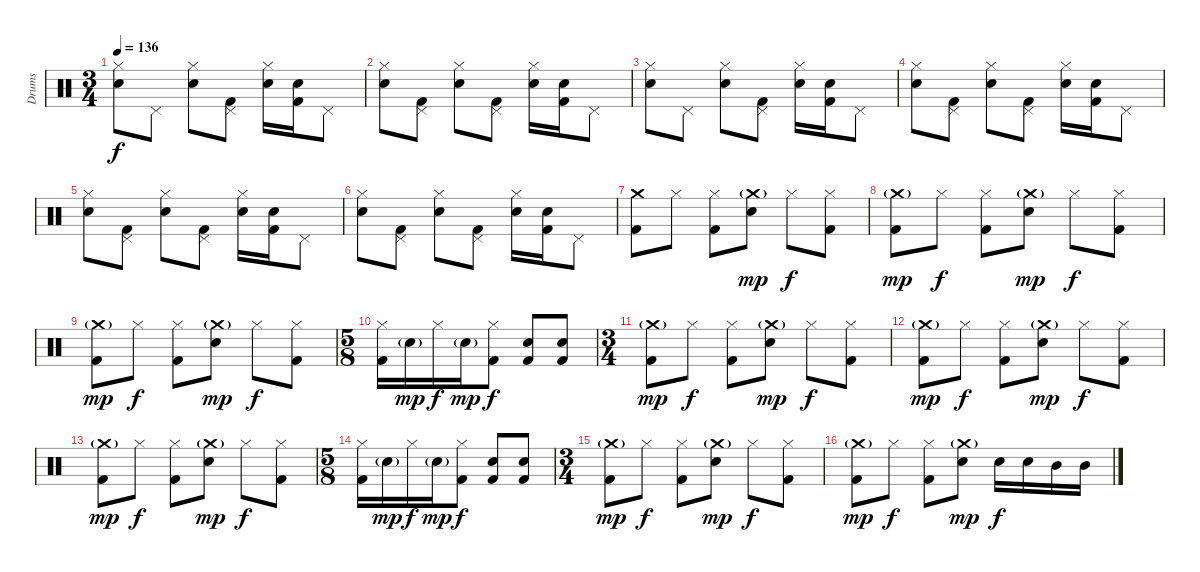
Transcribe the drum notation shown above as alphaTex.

\track ("Drums" "Drums") {instrument percussion}
\staff {score}
\articulation defaults
\ts (3 4)
\tempo 136
\clef neutral
\ks c
("Hi-Hat (closed)" "Electric Snare (hit)").8{dy f} "Pedal Hi-Hat (hit)".8 ("Hi-Hat (closed)" "Electric Snare (hit)").8 ("Pedal Hi-Hat (hit)" "Kick (hit) 2").8 ("Hi-Hat (closed)" "Electric Snare (hit)").16 ("Electric Snare (hit)" "Kick (hit) 2").16 "Pedal Hi-Hat (hit)".8 |
("Hi-Hat (closed)" "Electric Snare (hit)").8 ("Pedal Hi-Hat (hit)" "Kick (hit) 2").8 ("Hi-Hat (closed)" "Electric Snare (hit)").8 ("Pedal Hi-Hat (hit)" "Kick (hit) 2").8 ("Hi-Hat (closed)" "Electric Snare (hit)").16 ("Electric Snare (hit)" "Kick (hit) 2").16 "Pedal Hi-Hat (hit)".8 |
("Hi-Hat (closed)" "Electric Snare (hit)").8 "Pedal Hi-Hat (hit)".8 ("Hi-Hat (closed)" "Electric Snare (hit)").8 ("Pedal Hi-Hat (hit)" "Kick (hit) 2").8 ("Hi-Hat (closed)" "Electric Snare (hit)").16 ("Electric Snare (hit)" "Kick (hit) 2").16 "Pedal Hi-Hat (hit)".8 |
("Hi-Hat (closed)" "Electric Snare (hit)").8 ("Pedal Hi-Hat (hit)" "Kick (hit) 2").8 ("Hi-Hat (closed)" "Electric Snare (hit)").8 ("Pedal Hi-Hat (hit)" "Kick (hit) 2").8 ("Hi-Hat (closed)" "Electric Snare (hit)").16 ("Electric Snare (hit)" "Kick (hit) 2").16 "Pedal Hi-Hat (hit)".8 |
("Hi-Hat (closed)" "Electric Snare (hit)").8 ("Pedal Hi-Hat (hit)" "Kick (hit) 2").8 ("Hi-Hat (closed)" "Electric Snare (hit)").8 ("Pedal Hi-Hat (hit)" "Kick (hit) 2").8 ("Hi-Hat (closed)" "Electric Snare (hit)").16 ("Electric Snare (hit)" "Kick (hit) 2").16 "Pedal Hi-Hat (hit)".8 |
("Hi-Hat (closed)" "Electric Snare (hit)").8 ("Pedal Hi-Hat (hit)" "Kick (hit) 2").8 ("Hi-Hat (closed)" "Electric Snare (hit)").8 ("Pedal Hi-Hat (hit)" "Kick (hit) 2").8 ("Hi-Hat (closed)" "Electric Snare (hit)").16 ("Electric Snare (hit)" "Kick (hit) 2").16 "Pedal Hi-Hat (hit)".8 |
("Crash medium (hit)" "Kick (hit) 2").8 "Hi-Hat (closed)".8 ("Hi-Hat (closed)" "Kick (hit) 2").8 ("Crash medium (hit)"{g} "Electric Snare (hit)").8{dy mp} "Hi-Hat (closed)".8{dy f} ("Hi-Hat (closed)" "Kick (hit) 2").8 |
("Crash medium (hit)"{g} "Kick (hit) 2").8{dy mp} "Hi-Hat (closed)".8{dy f} ("Hi-Hat (closed)" "Kick (hit) 2").8 ("Crash medium (hit)"{g} "Electric Snare (hit)").8{dy mp} "Hi-Hat (closed)".8{dy f} ("Hi-Hat (closed)" "Kick (hit) 2").8 |
("Crash medium (hit)"{g} "Kick (hit) 2").8{dy mp} "Hi-Hat (closed)".8{dy f} ("Hi-Hat (closed)" "Kick (hit) 2").8 ("Crash medium (hit)"{g} "Electric Snare (hit)").8{dy mp} "Hi-Hat (closed)".8{dy f} ("Hi-Hat (closed)" "Kick (hit) 2").8 |
\ts (5 8)
("Hi-Hat (closed)" "Kick (hit) 2").16 "Electric Snare (hit)"{g}.16{dy mp} "Hi-Hat (closed)".16{dy f} "Electric Snare (hit)"{g}.16{dy mp} ("Hi-Hat (closed)" "Kick (hit) 2").8{dy f} ("Electric Snare (hit)" "Kick (hit) 2").8 ("Electric Snare (hit)" "Kick (hit) 2").8 |
\ts (3 4)
("Crash medium (hit)"{g} "Kick (hit) 2").8{dy mp} "Hi-Hat (closed)".8{dy f} ("Hi-Hat (closed)" "Kick (hit) 2").8 ("Crash medium (hit)"{g} "Electric Snare (hit)").8{dy mp} "Hi-Hat (closed)".8{dy f} ("Hi-Hat (closed)" "Kick (hit) 2").8 |
("Crash medium (hit)"{g} "Kick (hit) 2").8{dy mp} "Hi-Hat (closed)".8{dy f} ("Hi-Hat (closed)" "Kick (hit) 2").8 ("Crash medium (hit)"{g} "Electric Snare (hit)").8{dy mp} "Hi-Hat (closed)".8{dy f} ("Hi-Hat (closed)" "Kick (hit) 2").8 |
("Crash medium (hit)"{g} "Kick (hit) 2").8{dy mp} "Hi-Hat (closed)".8{dy f} ("Hi-Hat (closed)" "Kick (hit) 2").8 ("Crash medium (hit)"{g} "Electric Snare (hit)").8{dy mp} "Hi-Hat (closed)".8{dy f} ("Hi-Hat (closed)" "Kick (hit) 2").8 |
\ts (5 8)
("Hi-Hat (closed)" "Kick (hit) 2").16 "Electric Snare (hit)"{g}.16{dy mp} "Hi-Hat (closed)".16{dy f} "Electric Snare (hit)"{g}.16{dy mp} ("Hi-Hat (closed)" "Kick (hit) 2").8{dy f} ("Electric Snare (hit)" "Kick (hit) 2").8 ("Electric Snare (hit)" "Kick (hit) 2").8 |
\ts (3 4)
("Crash medium (hit)"{g} "Kick (hit) 2").8{dy mp} "Hi-Hat (closed)".8{dy f} ("Hi-Hat (closed)" "Kick (hit) 2").8 ("Crash medium (hit)"{g} "Electric Snare (hit)").8{dy mp} "Hi-Hat (closed)".8{dy f} ("Hi-Hat (closed)" "Kick (hit) 2").8 |
("Crash medium (hit)"{g} "Kick (hit) 2").8{dy mp} "Hi-Hat (closed)".8{dy f} ("Hi-Hat (closed)" "Kick (hit) 2").8 ("Crash medium (hit)"{g} "Electric Snare (hit)").8{dy mp} "Electric Snare (hit)".16{dy f} "Electric Snare (hit)".16 "Mid Tom (hit)".16 "Mid Tom (hit)".16
